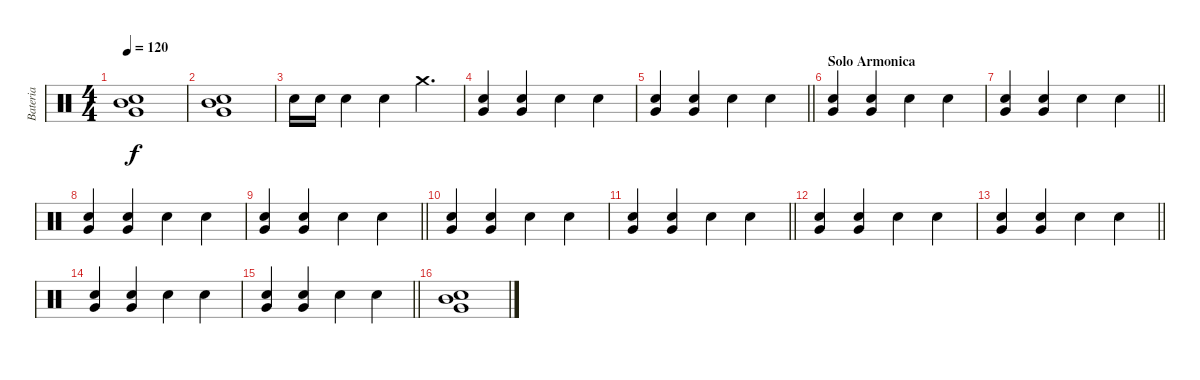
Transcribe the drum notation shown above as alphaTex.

\track ("Bateria" "Bateria") {instrument percussion}
\staff {score}
\articulation defaults
\ts (4 4)
\tempo 120
\clef neutral
\ks c
("Snare (hit) 2" "Very Low Tom (hit)" "Mid Tom (hit)").1{dy f} |
("Snare (hit) 2" "Very Low Tom (hit)" "Mid Tom (hit)").1 |
"Snare (hit) 2".16 "Snare (hit) 2".16 "Snare (hit) 2".4 "Snare (hit) 2".4 "Crash medium (hit)".4{d} |
("Snare (hit) 2" "Very Low Tom (hit)").4 ("Snare (hit) 2" "Very Low Tom (hit)").4 "Snare (hit) 2".4 "Snare (hit) 2".4 |
\barLineRight lightlight
("Snare (hit) 2" "Very Low Tom (hit)").4 ("Snare (hit) 2" "Very Low Tom (hit)").4 "Snare (hit) 2".4 "Snare (hit) 2".4 |
\section ("" "Solo Armonica")
("Snare (hit) 2" "Very Low Tom (hit)").4 ("Snare (hit) 2" "Very Low Tom (hit)").4 "Snare (hit) 2".4 "Snare (hit) 2".4 |
\barLineRight lightlight
("Snare (hit) 2" "Very Low Tom (hit)").4 ("Snare (hit) 2" "Very Low Tom (hit)").4 "Snare (hit) 2".4 "Snare (hit) 2".4 |
("Snare (hit) 2" "Very Low Tom (hit)").4 ("Snare (hit) 2" "Very Low Tom (hit)").4 "Snare (hit) 2".4 "Snare (hit) 2".4 |
\barLineRight lightlight
("Snare (hit) 2" "Very Low Tom (hit)").4 ("Snare (hit) 2" "Very Low Tom (hit)").4 "Snare (hit) 2".4 "Snare (hit) 2".4 |
("Snare (hit) 2" "Very Low Tom (hit)").4 ("Snare (hit) 2" "Very Low Tom (hit)").4 "Snare (hit) 2".4 "Snare (hit) 2".4 |
\barLineRight lightlight
("Snare (hit) 2" "Very Low Tom (hit)").4 ("Snare (hit) 2" "Very Low Tom (hit)").4 "Snare (hit) 2".4 "Snare (hit) 2".4 |
("Snare (hit) 2" "Very Low Tom (hit)").4 ("Snare (hit) 2" "Very Low Tom (hit)").4 "Snare (hit) 2".4 "Snare (hit) 2".4 |
\barLineRight lightlight
("Snare (hit) 2" "Very Low Tom (hit)").4 ("Snare (hit) 2" "Very Low Tom (hit)").4 "Snare (hit) 2".4 "Snare (hit) 2".4 |
("Snare (hit) 2" "Very Low Tom (hit)").4 ("Snare (hit) 2" "Very Low Tom (hit)").4 "Snare (hit) 2".4 "Snare (hit) 2".4 |
\barLineRight lightlight
("Snare (hit) 2" "Very Low Tom (hit)").4 ("Snare (hit) 2" "Very Low Tom (hit)").4 "Snare (hit) 2".4 "Snare (hit) 2".4 |
("Snare (hit) 2" "Very Low Tom (hit)" "Mid Tom (hit)").1
